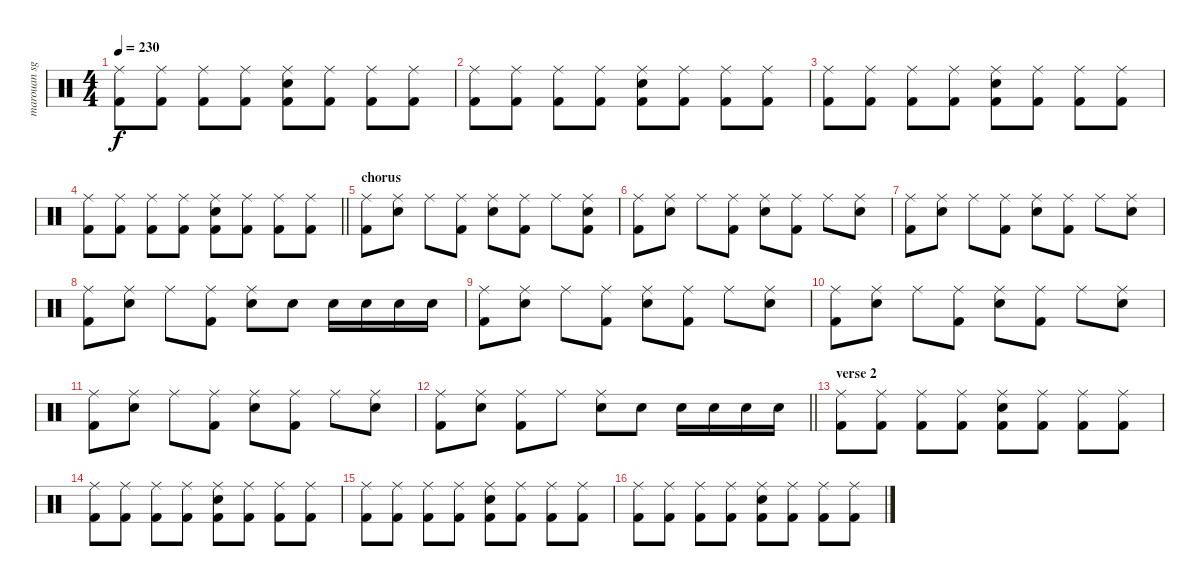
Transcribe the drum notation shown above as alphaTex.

\track ("marouan sghir" "marouan sg") {instrument percussion}
\staff {score}
\articulation defaults
\ts (4 4)
\tempo 230
\clef neutral
\ks c
("Ride (middle)" "Kick (hit) 2").8{dy f} ("Ride (middle)" "Kick (hit) 2").8 ("Ride (middle)" "Kick (hit) 2").8 ("Ride (middle)" "Kick (hit) 2").8 ("Ride (middle)" "Snare (hit) 2" "Kick (hit) 2").8 ("Ride (middle)" "Kick (hit) 2").8 ("Ride (middle)" "Kick (hit) 2").8 ("Ride (middle)" "Kick (hit) 2").8 |
("Ride (middle)" "Kick (hit) 2").8 ("Ride (middle)" "Kick (hit) 2").8 ("Ride (middle)" "Kick (hit) 2").8 ("Ride (middle)" "Kick (hit) 2").8 ("Ride (middle)" "Snare (hit) 2" "Kick (hit) 2").8 ("Ride (middle)" "Kick (hit) 2").8 ("Ride (middle)" "Kick (hit) 2").8 ("Ride (middle)" "Kick (hit) 2").8 |
("Ride (middle)" "Kick (hit) 2").8 ("Ride (middle)" "Kick (hit) 2").8 ("Ride (middle)" "Kick (hit) 2").8 ("Ride (middle)" "Kick (hit) 2").8 ("Ride (middle)" "Snare (hit) 2" "Kick (hit) 2").8 ("Ride (middle)" "Kick (hit) 2").8 ("Ride (middle)" "Kick (hit) 2").8 ("Ride (middle)" "Kick (hit) 2").8 |
\barLineRight lightlight
("Ride (middle)" "Kick (hit) 2").8 ("Ride (middle)" "Kick (hit) 2").8 ("Ride (middle)" "Kick (hit) 2").8 ("Ride (middle)" "Kick (hit) 2").8 ("Ride (middle)" "Snare (hit) 2" "Kick (hit) 2").8 ("Ride (middle)" "Kick (hit) 2").8 ("Ride (middle)" "Kick (hit) 2").8 ("Ride (middle)" "Kick (hit) 2").8 |
\section ("" "chorus")
("Ride (middle)" "Kick (hit) 2").8 ("Ride (middle)" "Snare (hit) 2").8 "Ride (middle)".8 ("Ride (middle)" "Kick (hit) 2").8 ("Ride (middle)" "Snare (hit) 2").8 ("Ride (middle)" "Kick (hit) 2").8 "Ride (middle)".8 ("Ride (middle)" "Snare (hit) 2" "Kick (hit) 2").8 |
("Ride (middle)" "Kick (hit) 2").8 ("Ride (middle)" "Snare (hit) 2").8 "Ride (middle)".8 ("Ride (middle)" "Kick (hit) 2").8 ("Ride (middle)" "Snare (hit) 2").8 ("Ride (middle)" "Kick (hit) 2").8 "Ride (middle)".8 ("Ride (middle)" "Snare (hit) 2").8 |
("Ride (middle)" "Kick (hit) 2").8 ("Ride (middle)" "Snare (hit) 2").8 "Ride (middle)".8 ("Ride (middle)" "Kick (hit) 2").8 ("Ride (middle)" "Snare (hit) 2").8 ("Ride (middle)" "Kick (hit) 2").8 "Ride (middle)".8 ("Ride (middle)" "Snare (hit) 2").8 |
("Ride (middle)" "Kick (hit) 2").8 ("Ride (middle)" "Snare (hit) 2").8 "Ride (middle)".8 ("Ride (middle)" "Kick (hit) 2").8 ("Ride (middle)" "Snare (hit) 2").8 "Snare (hit) 2".8 "Snare (hit) 2".16 "Snare (hit) 2".16 "Snare (hit) 2".16 "Snare (hit) 2".16 |
("Ride (middle)" "Kick (hit) 2").8 ("Ride (middle)" "Snare (hit) 2").8 "Ride (middle)".8 ("Ride (middle)" "Kick (hit) 2").8 ("Ride (middle)" "Snare (hit) 2").8 ("Ride (middle)" "Kick (hit) 2").8 "Ride (middle)".8 ("Ride (middle)" "Snare (hit) 2").8 |
("Ride (middle)" "Kick (hit) 2").8 ("Ride (middle)" "Snare (hit) 2").8 "Ride (middle)".8 ("Ride (middle)" "Kick (hit) 2").8 ("Ride (middle)" "Snare (hit) 2").8 ("Ride (middle)" "Kick (hit) 2").8 "Ride (middle)".8 ("Ride (middle)" "Snare (hit) 2").8 |
("Ride (middle)" "Kick (hit) 2").8 ("Ride (middle)" "Snare (hit) 2").8 "Ride (middle)".8 ("Ride (middle)" "Kick (hit) 2").8 ("Ride (middle)" "Snare (hit) 2").8 ("Ride (middle)" "Kick (hit) 2").8 "Ride (middle)".8 ("Ride (middle)" "Snare (hit) 2").8 |
\barLineRight lightlight
("Ride (middle)" "Kick (hit) 2").8 ("Ride (middle)" "Snare (hit) 2").8 ("Ride (middle)" "Kick (hit) 2").8 "Ride (middle)".8 ("Ride (middle)" "Snare (hit) 2").8 "Snare (hit) 2".8 "Snare (hit) 2".16 "Snare (hit) 2".16 "Snare (hit) 2".16 "Snare (hit) 2".16 |
\section ("" "verse 2")
("Ride (middle)" "Kick (hit) 2").8 ("Ride (middle)" "Kick (hit) 2").8 ("Ride (middle)" "Kick (hit) 2").8 ("Ride (middle)" "Kick (hit) 2").8 ("Ride (middle)" "Snare (hit) 2" "Kick (hit) 2").8 ("Ride (middle)" "Kick (hit) 2").8 ("Ride (middle)" "Kick (hit) 2").8 ("Ride (middle)" "Kick (hit) 2").8 |
("Ride (middle)" "Kick (hit) 2").8 ("Ride (middle)" "Kick (hit) 2").8 ("Ride (middle)" "Kick (hit) 2").8 ("Ride (middle)" "Kick (hit) 2").8 ("Ride (middle)" "Snare (hit) 2" "Kick (hit) 2").8 ("Ride (middle)" "Kick (hit) 2").8 ("Ride (middle)" "Kick (hit) 2").8 ("Ride (middle)" "Kick (hit) 2").8 |
("Ride (middle)" "Kick (hit) 2").8 ("Ride (middle)" "Kick (hit) 2").8 ("Ride (middle)" "Kick (hit) 2").8 ("Ride (middle)" "Kick (hit) 2").8 ("Ride (middle)" "Snare (hit) 2" "Kick (hit) 2").8 ("Ride (middle)" "Kick (hit) 2").8 ("Ride (middle)" "Kick (hit) 2").8 ("Ride (middle)" "Kick (hit) 2").8 |
("Ride (middle)" "Kick (hit) 2").8 ("Ride (middle)" "Kick (hit) 2").8 ("Ride (middle)" "Kick (hit) 2").8 ("Ride (middle)" "Kick (hit) 2").8 ("Ride (middle)" "Snare (hit) 2" "Kick (hit) 2").8 ("Ride (middle)" "Kick (hit) 2").8 ("Ride (middle)" "Kick (hit) 2").8 ("Ride (middle)" "Kick (hit) 2").8
